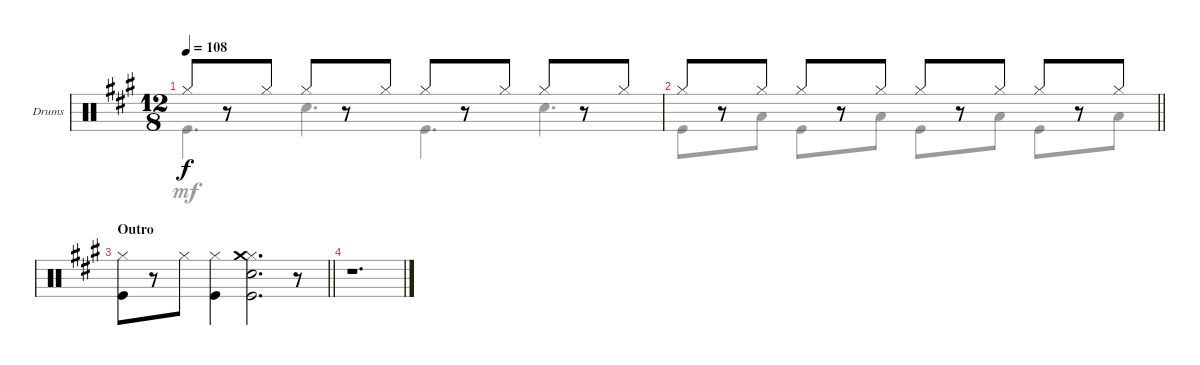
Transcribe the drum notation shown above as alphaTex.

\bracketExtendMode groupsimilarinstruments
\firstSystemTrackNameOrientation horizontal
\otherSystemsTrackNameOrientation horizontal
\track ("Drumkit" "Drums") {instrument percussion}
\staff {score}
\articulation defaults
\voice
\ts (12 8)
\tempo 108
\clef neutral
\ks a "Hi-Hat (closed)".8{dy f}
r.8 "Hi-Hat (closed)".8 "Hi-Hat (closed)".8 r.8 "Hi-Hat (closed)".8 "Hi-Hat (closed)".8 r.8 "Hi-Hat (closed)".8 "Hi-Hat (closed)".8 r.8 "Hi-Hat (closed)".8 |
\barLineRight lightlight "Hi-Hat (closed)".8
r.8 "Hi-Hat (closed)".8 "Hi-Hat (closed)".8 r.8 "Hi-Hat (closed)".8 "Hi-Hat (closed)".8 r.8 "Hi-Hat (closed)".8 "Hi-Hat (closed)".8 r.8 "Hi-Hat (closed)".8 |
\section ("" "Outro")
\barLineRight lightlight
("Hi-Hat (closed)" "Kick (hit)").8 r.8 "Hi-Hat (closed)".8 ("Hi-Hat (closed)" "Kick (hit)").4 ("Hi-Hat (closed)" "Kick (hit)" "Snare (hit) 2" "Crash medium (hit)").2{d} r.8 |
r.1{d}
\voice
\clef neutral
\ottava regular
\simile none
\ks a "Kick (hit)".4{d dy mf} "Snare (hit) 2".4{d} "Kick (hit)".4{d} "Snare (hit) 2".4{d}
|
\barLineRight lightlight "Kick (hit)".8
r.8 "Low Tom (hit)".8 "Kick (hit)".8 r.8 "Low Tom (hit)".8 "Kick (hit)".8 r.8 "Low Tom (hit)".8 "Kick (hit)".8 r.8 "Low Tom (hit)".8 |
\barLineRight lightlight
|
